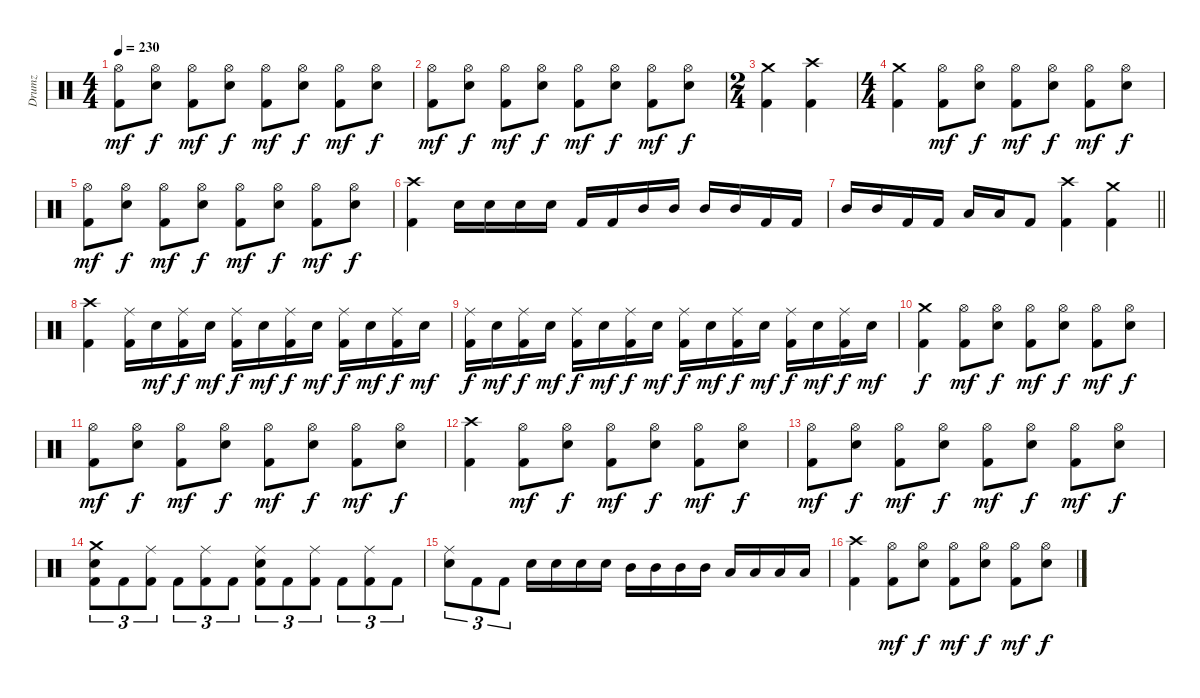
\track ("Drumz" "Drumz") {instrument percussion}
\staff {score}
\articulation defaults
\ts (4 4)
\tempo 230
\clef neutral
\ks c
("Hi-Hat (open)" "Kick (hit) 2").8{dy mf} ("Hi-Hat (open)" "Electric Snare (hit)").8{dy f} ("Hi-Hat (open)" "Kick (hit) 2").8{dy mf} ("Hi-Hat (open)" "Electric Snare (hit)").8{dy f} ("Hi-Hat (open)" "Kick (hit) 2").8{dy mf} ("Hi-Hat (open)" "Electric Snare (hit)").8{dy f} ("Hi-Hat (open)" "Kick (hit) 2").8{dy mf} ("Hi-Hat (open)" "Electric Snare (hit)").8{dy f} |
("Hi-Hat (open)" "Kick (hit) 2").8{dy mf} ("Hi-Hat (open)" "Electric Snare (hit)").8{dy f} ("Hi-Hat (open)" "Kick (hit) 2").8{dy mf} ("Hi-Hat (open)" "Electric Snare (hit)").8{dy f} ("Hi-Hat (open)" "Kick (hit) 2").8{dy mf} ("Hi-Hat (open)" "Electric Snare (hit)").8{dy f} ("Hi-Hat (open)" "Kick (hit) 2").8{dy mf} ("Hi-Hat (open)" "Electric Snare (hit)").8{dy f} |
\ts (2 4)
("Crash medium (hit)" "Kick (hit) 2").4 ("Crash high (hit)" "Kick (hit) 2").4 |
\ts (4 4)
("Crash medium (hit)" "Kick (hit) 2").4 ("Hi-Hat (open)" "Kick (hit) 2").8{dy mf} ("Hi-Hat (open)" "Electric Snare (hit)").8{dy f} ("Hi-Hat (open)" "Kick (hit) 2").8{dy mf} ("Hi-Hat (open)" "Electric Snare (hit)").8{dy f} ("Hi-Hat (open)" "Kick (hit) 2").8{dy mf} ("Hi-Hat (open)" "Electric Snare (hit)").8{dy f} |
("Hi-Hat (open)" "Kick (hit) 2").8{dy mf} ("Hi-Hat (open)" "Electric Snare (hit)").8{dy f} ("Hi-Hat (open)" "Kick (hit) 2").8{dy mf} ("Hi-Hat (open)" "Electric Snare (hit)").8{dy f} ("Hi-Hat (open)" "Kick (hit) 2").8{dy mf} ("Hi-Hat (open)" "Electric Snare (hit)").8{dy f} ("Hi-Hat (open)" "Kick (hit) 2").8{dy mf} ("Hi-Hat (open)" "Electric Snare (hit)").8{dy f} |
("Crash high (hit)" "Kick (hit) 2").4 "Electric Snare (hit)".16 "Electric Snare (hit)".16 "Electric Snare (hit)".16 "Electric Snare (hit)".16 "Kick (hit) 2".16 "Kick (hit) 2".16 "Mid Tom (hit)".16 "Mid Tom (hit)".16 "Mid Tom (hit)".16 "Mid Tom (hit)".16 "Kick (hit) 2".16 "Kick (hit) 2".16 |
\barLineRight lightlight "Mid Tom (hit)".16 "Mid Tom (hit)".16 "Kick (hit) 2".16 "Kick (hit) 2".16 "Low Tom (hit)".16 "Low Tom (hit)".16 "Kick (hit) 2".8
("Crash high (hit)" "Kick (hit) 2").4 ("Crash medium (hit)" "Kick (hit) 2").4 |
\section ("" "")
("Crash high (hit)" "Kick (hit) 2").4 ("Ride (middle)" "Kick (hit) 2").16 "Electric Snare (hit)".16{dy mf} ("Ride (middle)" "Kick (hit) 2").16{dy f} "Electric Snare (hit)".16{dy mf} ("Ride (middle)" "Kick (hit) 2").16{dy f} "Electric Snare (hit)".16{dy mf} ("Ride (middle)" "Kick (hit) 2").16{dy f} "Electric Snare (hit)".16{dy mf} ("Ride (middle)" "Kick (hit) 2").16{dy f} "Electric Snare (hit)".16{dy mf} ("Ride (middle)" "Kick (hit) 2").16{dy f} "Electric Snare (hit)".16{dy mf} |
("Ride (middle)" "Kick (hit) 2").16{dy f} "Electric Snare (hit)".16{dy mf} ("Ride (middle)" "Kick (hit) 2").16{dy f} "Electric Snare (hit)".16{dy mf} ("Ride (middle)" "Kick (hit) 2").16{dy f} "Electric Snare (hit)".16{dy mf} ("Ride (middle)" "Kick (hit) 2").16{dy f} "Electric Snare (hit)".16{dy mf} ("Ride (middle)" "Kick (hit) 2").16{dy f} "Electric Snare (hit)".16{dy mf} ("Ride (middle)" "Kick (hit) 2").16{dy f} "Electric Snare (hit)".16{dy mf} ("Ride (middle)" "Kick (hit) 2").16{dy f} "Electric Snare (hit)".16{dy mf} ("Ride (middle)" "Kick (hit) 2").16{dy f} "Electric Snare (hit)".16{dy mf} |
("Crash medium (hit)" "Kick (hit) 2").4{dy f} ("Hi-Hat (open)" "Kick (hit) 2").8{dy mf} ("Hi-Hat (open)" "Electric Snare (hit)").8{dy f} ("Hi-Hat (open)" "Kick (hit) 2").8{dy mf} ("Hi-Hat (open)" "Electric Snare (hit)").8{dy f} ("Hi-Hat (open)" "Kick (hit) 2").8{dy mf} ("Hi-Hat (open)" "Electric Snare (hit)").8{dy f} |
("Hi-Hat (open)" "Kick (hit) 2").8{dy mf} ("Hi-Hat (open)" "Electric Snare (hit)").8{dy f} ("Hi-Hat (open)" "Kick (hit) 2").8{dy mf} ("Hi-Hat (open)" "Electric Snare (hit)").8{dy f} ("Hi-Hat (open)" "Kick (hit) 2").8{dy mf} ("Hi-Hat (open)" "Electric Snare (hit)").8{dy f} ("Hi-Hat (open)" "Kick (hit) 2").8{dy mf} ("Hi-Hat (open)" "Electric Snare (hit)").8{dy f} |
("Crash high (hit)" "Kick (hit) 2").4 ("Hi-Hat (open)" "Kick (hit) 2").8{dy mf} ("Hi-Hat (open)" "Electric Snare (hit)").8{dy f} ("Hi-Hat (open)" "Kick (hit) 2").8{dy mf} ("Hi-Hat (open)" "Electric Snare (hit)").8{dy f} ("Hi-Hat (open)" "Kick (hit) 2").8{dy mf} ("Hi-Hat (open)" "Electric Snare (hit)").8{dy f} |
("Hi-Hat (open)" "Kick (hit) 2").8{dy mf} ("Hi-Hat (open)" "Electric Snare (hit)").8{dy f} ("Hi-Hat (open)" "Kick (hit) 2").8{dy mf} ("Hi-Hat (open)" "Electric Snare (hit)").8{dy f} ("Hi-Hat (open)" "Kick (hit) 2").8{dy mf} ("Hi-Hat (open)" "Electric Snare (hit)").8{dy f} ("Hi-Hat (open)" "Kick (hit) 2").8{dy mf} ("Hi-Hat (open)" "Electric Snare (hit)").8{dy f} |
("Crash medium (hit)" "Electric Snare (hit)" "Kick (hit) 2").8{tu (3 2)} "Kick (hit) 2".8{tu (3 2)} ("Ride (middle)" "Kick (hit) 2").8{tu (3 2)} "Kick (hit) 2".8{tu (3 2)} ("Ride (middle)" "Kick (hit) 2").8{tu (3 2)} "Kick (hit) 2".8{tu (3 2)} ("Ride (middle)" "Electric Snare (hit)" "Kick (hit) 2").8{tu (3 2)} "Kick (hit) 2".8{tu (3 2)} ("Ride (middle)" "Kick (hit) 2").8{tu (3 2)} "Kick (hit) 2".8{tu (3 2)} ("Ride (middle)" "Kick (hit) 2").8{tu (3 2)} "Kick (hit) 2".8{tu (3 2)} |
("Ride (middle)" "Electric Snare (hit)").8{tu (3 2)} "Kick (hit) 2".8{tu (3 2)} "Kick (hit) 2".8{tu (3 2)} "Electric Snare (hit)".16 "Electric Snare (hit)".16 "Electric Snare (hit)".16 "Electric Snare (hit)".16 "Mid Tom (hit)".16 "Mid Tom (hit)".16 "Mid Tom (hit)".16 "Mid Tom (hit)".16 "Low Tom (hit)".16 "Low Tom (hit)".16 "Low Tom (hit)".16 "Low Tom (hit)".16 |
("Crash high (hit)" "Kick (hit) 2").4 ("Hi-Hat (open)" "Kick (hit) 2").8{dy mf} ("Hi-Hat (open)" "Electric Snare (hit)").8{dy f} ("Hi-Hat (open)" "Kick (hit) 2").8{dy mf} ("Hi-Hat (open)" "Electric Snare (hit)").8{dy f} ("Hi-Hat (open)" "Kick (hit) 2").8{dy mf} ("Hi-Hat (open)" "Electric Snare (hit)").8{dy f}
